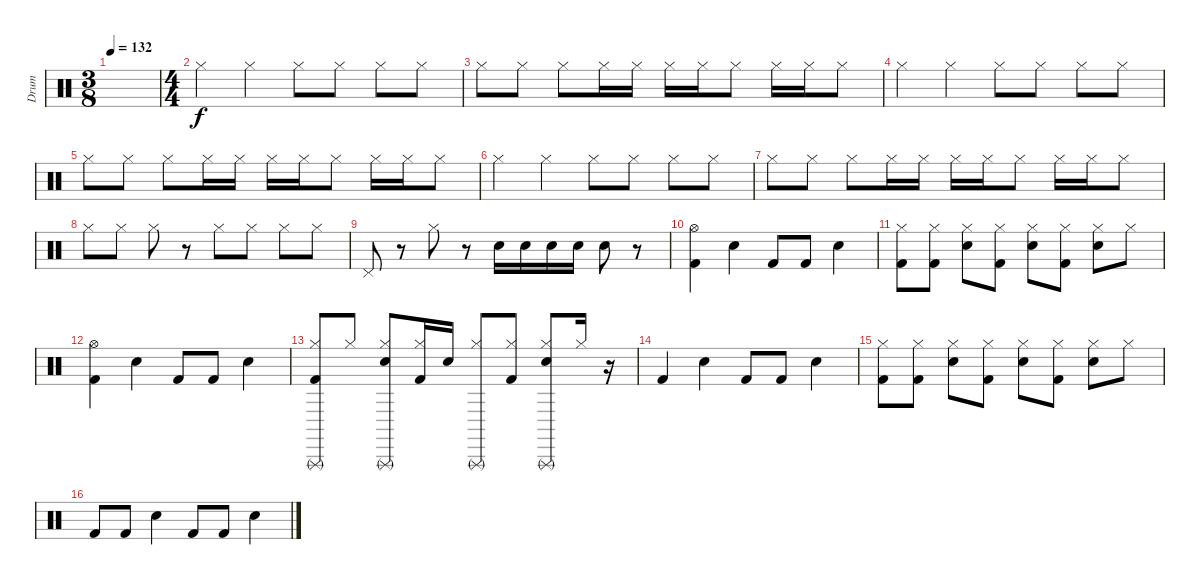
\track ("Drum" "Drum") {instrument percussion}
\staff {score}
\articulation defaults
\ts (3 8)
\tempo 132
\clef neutral
\ks c
|
\ts (4 4)
"Hi-Hat (closed)".4 "Hi-Hat (closed)".4 "Hi-Hat (closed)".8 "Hi-Hat (closed)".8 "Hi-Hat (closed)".8 "Hi-Hat (closed)".8 |
"Hi-Hat (closed)".8 "Hi-Hat (closed)".8 "Hi-Hat (closed)".8 "Hi-Hat (closed)".16 "Hi-Hat (closed)".16 "Hi-Hat (closed)".16 "Hi-Hat (closed)".16 "Hi-Hat (closed)".8 "Hi-Hat (closed)".16 "Hi-Hat (closed)".16 "Hi-Hat (closed)".8 |
"Hi-Hat (closed)".4 "Hi-Hat (closed)".4 "Hi-Hat (closed)".8 "Hi-Hat (closed)".8 "Hi-Hat (closed)".8 "Hi-Hat (closed)".8 |
"Hi-Hat (closed)".8 "Hi-Hat (closed)".8 "Hi-Hat (closed)".8 "Hi-Hat (closed)".16 "Hi-Hat (closed)".16 "Hi-Hat (closed)".16 "Hi-Hat (closed)".16 "Hi-Hat (closed)".8 "Hi-Hat (closed)".16 "Hi-Hat (closed)".16 "Hi-Hat (closed)".8 |
"Hi-Hat (closed)".4 "Hi-Hat (closed)".4 "Hi-Hat (closed)".8 "Hi-Hat (closed)".8 "Hi-Hat (closed)".8 "Hi-Hat (closed)".8 |
"Hi-Hat (closed)".8 "Hi-Hat (closed)".8 "Hi-Hat (closed)".8 "Hi-Hat (closed)".16 "Hi-Hat (closed)".16 "Hi-Hat (closed)".16 "Hi-Hat (closed)".16 "Hi-Hat (closed)".8 "Hi-Hat (closed)".16 "Hi-Hat (closed)".16 "Hi-Hat (closed)".8 |
"Hi-Hat (closed)".8 "Hi-Hat (closed)".8 "Hi-Hat (closed)".8 r.8 "Hi-Hat (closed)".8 "Hi-Hat (closed)".8 "Hi-Hat (closed)".8 "Hi-Hat (closed)".8 |
"Pedal Hi-Hat (hit)".8 r.8 "Hi-Hat (closed)".8 r.8 "Snare (hit) 2".16 "Snare (hit) 2".16 "Snare (hit) 2".16 "Snare (hit) 2".16 "Snare (hit) 2".8 r.8 |
("Hi-Hat (open)" "Kick (hit) 2").4 "Snare (hit) 2".4 "Kick (hit) 2".8 "Kick (hit) 2".8 "Snare (hit) 2".4 |
("Hi-Hat (closed)" "Kick (hit) 2").8 ("Hi-Hat (closed)" "Kick (hit) 2").8 ("Hi-Hat (closed)" "Snare (hit) 2").8 ("Hi-Hat (closed)" "Kick (hit) 2").8 ("Hi-Hat (closed)" "Snare (hit) 2").8 ("Hi-Hat (closed)" "Kick (hit) 2").8 ("Hi-Hat (closed)" "Snare (hit) 2").8 "Hi-Hat (closed)".8 |
("Hi-Hat (open)" "Kick (hit) 2").4 "Snare (hit) 2".4 "Kick (hit) 2".8 "Kick (hit) 2".8 "Snare (hit) 2".4 |
("Triangle (rnute)" "Hi-Hat (closed)" "Kick (hit) 2").8 "Hi-Hat (closed)".8 ("Triangle (rnute)" "Hi-Hat (closed)" "Snare (hit) 2").8 ("Hi-Hat (closed)" "Kick (hit) 2").16 "Snare (hit) 2".16 ("Triangle (rnute)" "Hi-Hat (closed)").8 ("Hi-Hat (closed)" "Kick (hit) 2").8 ("Triangle (rnute)" "Hi-Hat (closed)" "Snare (hit) 2").8 "Hi-Hat (closed)".16 r.16 |
"Kick (hit) 2".4 "Snare (hit) 2".4 "Kick (hit) 2".8 "Kick (hit) 2".8 "Snare (hit) 2".4 |
("Hi-Hat (closed)" "Kick (hit) 2").8 ("Hi-Hat (closed)" "Kick (hit) 2").8 ("Hi-Hat (closed)" "Snare (hit) 2").8 ("Hi-Hat (closed)" "Kick (hit) 2").8 ("Hi-Hat (closed)" "Snare (hit) 2").8 ("Hi-Hat (closed)" "Kick (hit) 2").8 ("Hi-Hat (closed)" "Snare (hit) 2").8 "Hi-Hat (closed)".8 |
"Kick (hit) 2".8 "Kick (hit) 2".8 "Snare (hit) 2".4 "Kick (hit) 2".8 "Kick (hit) 2".8 "Snare (hit) 2".4
